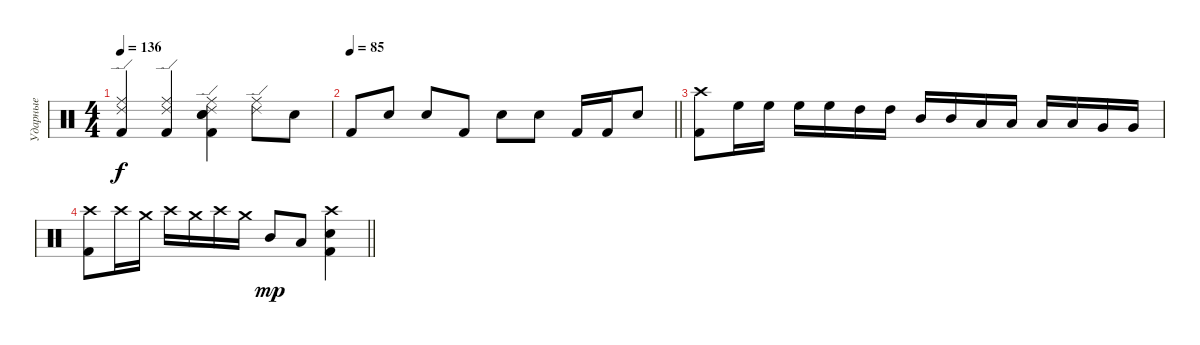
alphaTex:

\track ("Ударные" "Ударные") {instrument percussion}
\staff {score}
\articulation defaults
\ts (4 4)
\tempo 136
\clef neutral
\ks c
("Ride (edge) 2" "Ride (middle)" "Kick (hit) 2").4{dy f} ("Ride (edge) 2" "Ride (middle)" "Kick (hit) 2").4 ("Ride (edge) 2" "Snare (hit) 2" "Ride (middle)" "Snare (hit) 2" "Kick (hit) 2").4 ("Ride (middle)" "Ride (edge) 2").8 "Snare (hit) 2".8 |
\tempo 85
\barLineRight lightlight "Kick (hit) 2".8 "Snare (hit) 2".8 "Snare (hit) 2".8 "Kick (hit) 2".8 "Snare (hit) 2".8 "Snare (hit) 2".8 "Kick (hit) 2".16 "Kick (hit) 2".16 "Snare (hit) 2".8
|
("Kick (hit) 2" "Crash high (hit)").8 "High Floor Tom (hit)".16 "High Floor Tom (hit)".16 "High Floor Tom (hit)".16 "High Floor Tom (hit)".16 "High Tom (hit)".16 "High Tom (hit)".16 "Mid Tom (hit)".16 "Mid Tom (hit)".16 "Low Tom (hit)".16 "Low Tom (hit)".16 "Low Tom (hit)".16 "Low Tom (hit)".16 "Very Low Tom (hit)".16 "Very Low Tom (hit)".16 |
\barLineRight lightlight
("Crash high (hit)" "Kick (hit) 2").8 "Crash high (hit)".16 "Crash medium (hit)".16 "Crash high (hit)".16 "Crash medium (hit)".16 "Crash high (hit)".16 "Crash medium (hit)".16 "Mid Tom (hit)".8{dy mp} "Low Tom (hit)".8 ("Snare (hit) 2" "Kick (hit) 2" "Crash high (hit)").4
